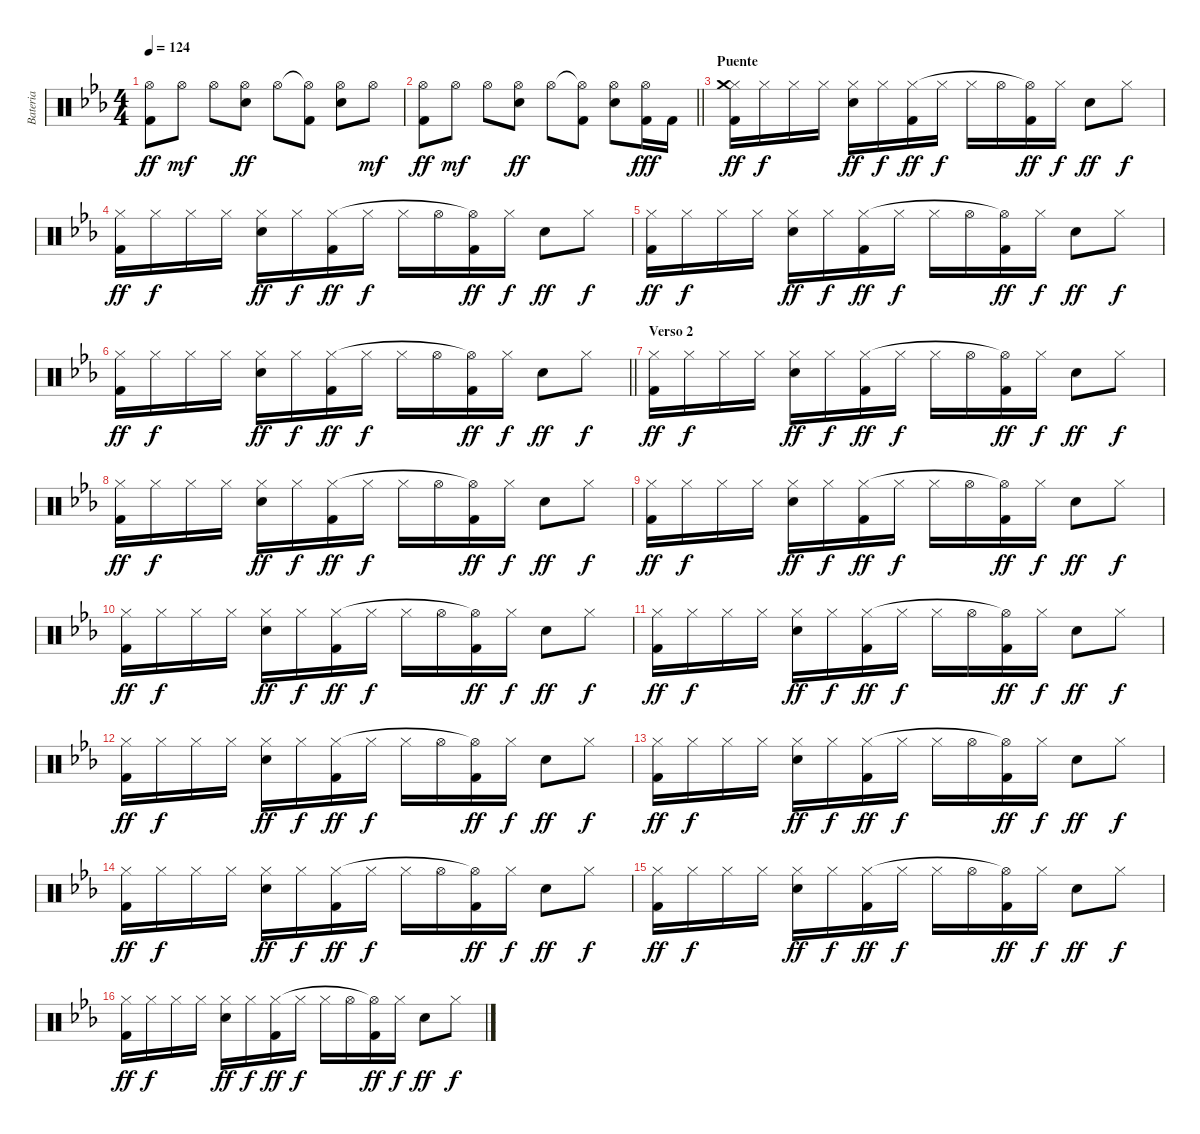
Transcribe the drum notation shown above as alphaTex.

\track ("Bateria" "Bateria") {instrument percussion}
\staff {score}
\articulation defaults
\ts (4 4)
\tempo 124
\clef neutral
\ks eb
("Hi-Hat (open)" "Kick (hit) 2").8{dy ff} "Hi-Hat (open)".8{dy mf} "Hi-Hat (open)".8 ("Hi-Hat (open)" "Electric Snare (hit)").8{dy ff} "Hi-Hat (open)".8 ("Hi-Hat (open)"{t} "Kick (hit) 2").8 ("Hi-Hat (open)" "Electric Snare (hit)").8 "Hi-Hat (open)".8{dy mf} |
\barLineRight lightlight
("Hi-Hat (open)" "Kick (hit) 2").8{dy ff} "Hi-Hat (open)".8{dy mf} "Hi-Hat (open)".8 ("Hi-Hat (open)" "Electric Snare (hit)").8{dy ff} "Hi-Hat (open)".8 ("Hi-Hat (open)"{t} "Kick (hit) 2").8 ("Hi-Hat (open)" "Electric Snare (hit)").8 ("Hi-Hat (open)" "Kick (hit) 2").16{dy fff} "Kick (hit) 2".16 |
\section ("" "Puente")
("Kick (hit) 2" "Hi-Hat (closed)" "Crash medium (hit)").16{dy ff} "Hi-Hat (closed)".16{dy f} "Hi-Hat (closed)".16 "Hi-Hat (closed)".16 ("Electric Snare (hit)" "Hi-Hat (closed)").16{dy ff} "Hi-Hat (closed)".16{dy f} ("Kick (hit) 2" "Hi-Hat (closed)").16{dy ff} "Hi-Hat (closed)".16{dy f} "Hi-Hat (closed)".16 "Hi-Hat (open)".16 ("Kick (hit) 2" "Hi-Hat (open)"{t}).16{dy ff} "Hi-Hat (closed)".16{dy f} "Electric Snare (hit)".8{dy ff} "Hi-Hat (closed)".8{dy f} |
("Kick (hit) 2" "Hi-Hat (closed)").16{dy ff} "Hi-Hat (closed)".16{dy f} "Hi-Hat (closed)".16 "Hi-Hat (closed)".16 ("Electric Snare (hit)" "Hi-Hat (closed)").16{dy ff} "Hi-Hat (closed)".16{dy f} ("Kick (hit) 2" "Hi-Hat (closed)").16{dy ff} "Hi-Hat (closed)".16{dy f} "Hi-Hat (closed)".16 "Hi-Hat (open)".16 ("Kick (hit) 2" "Hi-Hat (open)"{t}).16{dy ff} "Hi-Hat (closed)".16{dy f} "Electric Snare (hit)".8{dy ff} "Hi-Hat (closed)".8{dy f} |
("Kick (hit) 2" "Hi-Hat (closed)").16{dy ff} "Hi-Hat (closed)".16{dy f} "Hi-Hat (closed)".16 "Hi-Hat (closed)".16 ("Electric Snare (hit)" "Hi-Hat (closed)").16{dy ff} "Hi-Hat (closed)".16{dy f} ("Kick (hit) 2" "Hi-Hat (closed)").16{dy ff} "Hi-Hat (closed)".16{dy f} "Hi-Hat (closed)".16 "Hi-Hat (open)".16 ("Kick (hit) 2" "Hi-Hat (open)"{t}).16{dy ff} "Hi-Hat (closed)".16{dy f} "Electric Snare (hit)".8{dy ff} "Hi-Hat (closed)".8{dy f} |
\barLineRight lightlight
("Kick (hit) 2" "Hi-Hat (closed)").16{dy ff} "Hi-Hat (closed)".16{dy f} "Hi-Hat (closed)".16 "Hi-Hat (closed)".16 ("Electric Snare (hit)" "Hi-Hat (closed)").16{dy ff} "Hi-Hat (closed)".16{dy f} ("Kick (hit) 2" "Hi-Hat (closed)").16{dy ff} "Hi-Hat (closed)".16{dy f} "Hi-Hat (closed)".16 "Hi-Hat (open)".16 ("Kick (hit) 2" "Hi-Hat (open)"{t}).16{dy ff} "Hi-Hat (closed)".16{dy f} "Electric Snare (hit)".8{dy ff} "Hi-Hat (closed)".8{dy f} |
\section ("" "Verso 2")
("Kick (hit) 2" "Hi-Hat (closed)").16{dy ff} "Hi-Hat (closed)".16{dy f} "Hi-Hat (closed)".16 "Hi-Hat (closed)".16 ("Electric Snare (hit)" "Hi-Hat (closed)").16{dy ff} "Hi-Hat (closed)".16{dy f} ("Kick (hit) 2" "Hi-Hat (closed)").16{dy ff} "Hi-Hat (closed)".16{dy f} "Hi-Hat (closed)".16 "Hi-Hat (open)".16 ("Kick (hit) 2" "Hi-Hat (open)"{t}).16{dy ff} "Hi-Hat (closed)".16{dy f} "Electric Snare (hit)".8{dy ff} "Hi-Hat (closed)".8{dy f} |
("Kick (hit) 2" "Hi-Hat (closed)").16{dy ff} "Hi-Hat (closed)".16{dy f} "Hi-Hat (closed)".16 "Hi-Hat (closed)".16 ("Electric Snare (hit)" "Hi-Hat (closed)").16{dy ff} "Hi-Hat (closed)".16{dy f} ("Kick (hit) 2" "Hi-Hat (closed)").16{dy ff} "Hi-Hat (closed)".16{dy f} "Hi-Hat (closed)".16 "Hi-Hat (open)".16 ("Kick (hit) 2" "Hi-Hat (open)"{t}).16{dy ff} "Hi-Hat (closed)".16{dy f} "Electric Snare (hit)".8{dy ff} "Hi-Hat (closed)".8{dy f} |
("Kick (hit) 2" "Hi-Hat (closed)").16{dy ff} "Hi-Hat (closed)".16{dy f} "Hi-Hat (closed)".16 "Hi-Hat (closed)".16 ("Electric Snare (hit)" "Hi-Hat (closed)").16{dy ff} "Hi-Hat (closed)".16{dy f} ("Kick (hit) 2" "Hi-Hat (closed)").16{dy ff} "Hi-Hat (closed)".16{dy f} "Hi-Hat (closed)".16 "Hi-Hat (open)".16 ("Kick (hit) 2" "Hi-Hat (open)"{t}).16{dy ff} "Hi-Hat (closed)".16{dy f} "Electric Snare (hit)".8{dy ff} "Hi-Hat (closed)".8{dy f} |
("Kick (hit) 2" "Hi-Hat (closed)").16{dy ff} "Hi-Hat (closed)".16{dy f} "Hi-Hat (closed)".16 "Hi-Hat (closed)".16 ("Electric Snare (hit)" "Hi-Hat (closed)").16{dy ff} "Hi-Hat (closed)".16{dy f} ("Kick (hit) 2" "Hi-Hat (closed)").16{dy ff} "Hi-Hat (closed)".16{dy f} "Hi-Hat (closed)".16 "Hi-Hat (open)".16 ("Kick (hit) 2" "Hi-Hat (open)"{t}).16{dy ff} "Hi-Hat (closed)".16{dy f} "Electric Snare (hit)".8{dy ff} "Hi-Hat (closed)".8{dy f} |
("Kick (hit) 2" "Hi-Hat (closed)").16{dy ff} "Hi-Hat (closed)".16{dy f} "Hi-Hat (closed)".16 "Hi-Hat (closed)".16 ("Electric Snare (hit)" "Hi-Hat (closed)").16{dy ff} "Hi-Hat (closed)".16{dy f} ("Kick (hit) 2" "Hi-Hat (closed)").16{dy ff} "Hi-Hat (closed)".16{dy f} "Hi-Hat (closed)".16 "Hi-Hat (open)".16 ("Kick (hit) 2" "Hi-Hat (open)"{t}).16{dy ff} "Hi-Hat (closed)".16{dy f} "Electric Snare (hit)".8{dy ff} "Hi-Hat (closed)".8{dy f} |
("Kick (hit) 2" "Hi-Hat (closed)").16{dy ff} "Hi-Hat (closed)".16{dy f} "Hi-Hat (closed)".16 "Hi-Hat (closed)".16 ("Electric Snare (hit)" "Hi-Hat (closed)").16{dy ff} "Hi-Hat (closed)".16{dy f} ("Kick (hit) 2" "Hi-Hat (closed)").16{dy ff} "Hi-Hat (closed)".16{dy f} "Hi-Hat (closed)".16 "Hi-Hat (open)".16 ("Kick (hit) 2" "Hi-Hat (open)"{t}).16{dy ff} "Hi-Hat (closed)".16{dy f} "Electric Snare (hit)".8{dy ff} "Hi-Hat (closed)".8{dy f} |
("Kick (hit) 2" "Hi-Hat (closed)").16{dy ff} "Hi-Hat (closed)".16{dy f} "Hi-Hat (closed)".16 "Hi-Hat (closed)".16 ("Electric Snare (hit)" "Hi-Hat (closed)").16{dy ff} "Hi-Hat (closed)".16{dy f} ("Kick (hit) 2" "Hi-Hat (closed)").16{dy ff} "Hi-Hat (closed)".16{dy f} "Hi-Hat (closed)".16 "Hi-Hat (open)".16 ("Kick (hit) 2" "Hi-Hat (open)"{t}).16{dy ff} "Hi-Hat (closed)".16{dy f} "Electric Snare (hit)".8{dy ff} "Hi-Hat (closed)".8{dy f} |
("Kick (hit) 2" "Hi-Hat (closed)").16{dy ff} "Hi-Hat (closed)".16{dy f} "Hi-Hat (closed)".16 "Hi-Hat (closed)".16 ("Electric Snare (hit)" "Hi-Hat (closed)").16{dy ff} "Hi-Hat (closed)".16{dy f} ("Kick (hit) 2" "Hi-Hat (closed)").16{dy ff} "Hi-Hat (closed)".16{dy f} "Hi-Hat (closed)".16 "Hi-Hat (open)".16 ("Kick (hit) 2" "Hi-Hat (open)"{t}).16{dy ff} "Hi-Hat (closed)".16{dy f} "Electric Snare (hit)".8{dy ff} "Hi-Hat (closed)".8{dy f} |
("Kick (hit) 2" "Hi-Hat (closed)").16{dy ff} "Hi-Hat (closed)".16{dy f} "Hi-Hat (closed)".16 "Hi-Hat (closed)".16 ("Electric Snare (hit)" "Hi-Hat (closed)").16{dy ff} "Hi-Hat (closed)".16{dy f} ("Kick (hit) 2" "Hi-Hat (closed)").16{dy ff} "Hi-Hat (closed)".16{dy f} "Hi-Hat (closed)".16 "Hi-Hat (open)".16 ("Kick (hit) 2" "Hi-Hat (open)"{t}).16{dy ff} "Hi-Hat (closed)".16{dy f} "Electric Snare (hit)".8{dy ff} "Hi-Hat (closed)".8{dy f} |
("Kick (hit) 2" "Hi-Hat (closed)").16{dy ff} "Hi-Hat (closed)".16{dy f} "Hi-Hat (closed)".16 "Hi-Hat (closed)".16 ("Electric Snare (hit)" "Hi-Hat (closed)").16{dy ff} "Hi-Hat (closed)".16{dy f} ("Kick (hit) 2" "Hi-Hat (closed)").16{dy ff} "Hi-Hat (closed)".16{dy f} "Hi-Hat (closed)".16 "Hi-Hat (open)".16 ("Kick (hit) 2" "Hi-Hat (open)"{t}).16{dy ff} "Hi-Hat (closed)".16{dy f} "Electric Snare (hit)".8{dy ff} "Hi-Hat (closed)".8{dy f}
